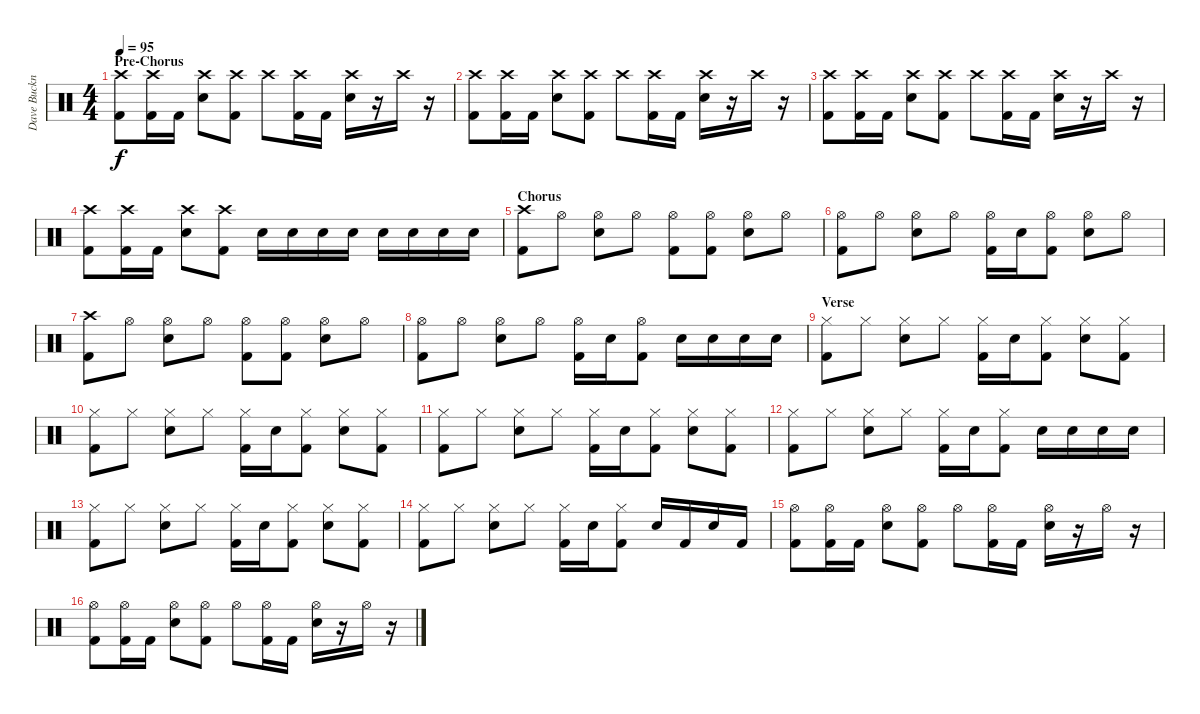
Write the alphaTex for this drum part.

\track ("Dave Buckner " "Dave Buckn") {instrument percussion}
\staff {score}
\articulation defaults
\ts (4 4)
\section ("" "Pre-Chorus")
\tempo 95
\clef neutral
\ks c
("Crash high (hit)" "Kick (hit) 2").8{dy f} ("Crash high (hit)" "Kick (hit) 2").16 "Kick (hit) 2".16 ("Crash high (hit)" "Snare (hit) 2").8 ("Crash high (hit)" "Kick (hit) 2").8 "Crash high (hit)".8 ("Crash high (hit)" "Kick (hit) 2").16 "Kick (hit) 2".16 ("Crash high (hit)" "Snare (hit) 2").16 r.16 "Crash high (hit)".16 r.16 |
("Crash high (hit)" "Kick (hit) 2").8 ("Crash high (hit)" "Kick (hit) 2").16 "Kick (hit) 2".16 ("Crash high (hit)" "Snare (hit) 2").8 ("Crash high (hit)" "Kick (hit) 2").8 "Crash high (hit)".8 ("Crash high (hit)" "Kick (hit) 2").16 "Kick (hit) 2".16 ("Crash high (hit)" "Snare (hit) 2").16 r.16 "Crash high (hit)".16 r.16 |
("Crash high (hit)" "Kick (hit) 2").8 ("Crash high (hit)" "Kick (hit) 2").16 "Kick (hit) 2".16 ("Crash high (hit)" "Snare (hit) 2").8 ("Crash high (hit)" "Kick (hit) 2").8 "Crash high (hit)".8 ("Crash high (hit)" "Kick (hit) 2").16 "Kick (hit) 2".16 ("Crash high (hit)" "Snare (hit) 2").16 r.16 "Crash high (hit)".16 r.16 |
("Crash high (hit)" "Kick (hit) 2").8 ("Crash high (hit)" "Kick (hit) 2").16 "Kick (hit) 2".16 ("Crash high (hit)" "Snare (hit) 2").8 ("Crash high (hit)" "Kick (hit) 2").8 "Snare (hit) 2".16 "Snare (hit) 2".16 "Snare (hit) 2".16 "Snare (hit) 2".16 "Snare (hit) 2".16 "Snare (hit) 2".16 "Snare (hit) 2".16 "Snare (hit) 2".16 |
\section ("" "Chorus")
("Crash high (hit)" "Kick (hit) 2").8 "Hi-Hat (open)".8 ("Hi-Hat (open)" "Snare (hit) 2").8 "Hi-Hat (open)".8 ("Hi-Hat (open)" "Kick (hit) 2").8 ("Hi-Hat (open)" "Kick (hit) 2").8 ("Hi-Hat (open)" "Snare (hit) 2").8 "Hi-Hat (open)".8 |
("Hi-Hat (open)" "Kick (hit) 2").8 "Hi-Hat (open)".8 ("Hi-Hat (open)" "Snare (hit) 2").8 "Hi-Hat (open)".8 ("Hi-Hat (open)" "Kick (hit) 2").16 "Snare (hit) 2".16 ("Hi-Hat (open)" "Kick (hit) 2").8 ("Hi-Hat (open)" "Snare (hit) 2").8 "Hi-Hat (open)".8 |
("Crash high (hit)" "Kick (hit) 2").8 "Hi-Hat (open)".8 ("Hi-Hat (open)" "Snare (hit) 2").8 "Hi-Hat (open)".8 ("Hi-Hat (open)" "Kick (hit) 2").8 ("Hi-Hat (open)" "Kick (hit) 2").8 ("Hi-Hat (open)" "Snare (hit) 2").8 "Hi-Hat (open)".8 |
("Hi-Hat (open)" "Kick (hit) 2").8 "Hi-Hat (open)".8 ("Hi-Hat (open)" "Snare (hit) 2").8 "Hi-Hat (open)".8 ("Hi-Hat (open)" "Kick (hit) 2").16 "Snare (hit) 2".16 ("Hi-Hat (open)" "Kick (hit) 2").8 "Snare (hit) 2".16 "Snare (hit) 2".16 "Snare (hit) 2".16 "Snare (hit) 2".16 |
\section ("" "Verse")
("Hi-Hat (closed)" "Kick (hit) 2").8 "Hi-Hat (closed)".8 ("Hi-Hat (closed)" "Snare (hit) 2").8 "Hi-Hat (closed)".8 ("Hi-Hat (closed)" "Kick (hit) 2").16 "Snare (hit) 2".16 ("Hi-Hat (closed)" "Kick (hit) 2").8 ("Hi-Hat (closed)" "Snare (hit) 2").8 ("Hi-Hat (closed)" "Kick (hit) 2").8 |
("Hi-Hat (closed)" "Kick (hit) 2").8 "Hi-Hat (closed)".8 ("Hi-Hat (closed)" "Snare (hit) 2").8 "Hi-Hat (closed)".8 ("Hi-Hat (closed)" "Kick (hit) 2").16 "Snare (hit) 2".16 ("Hi-Hat (closed)" "Kick (hit) 2").8 ("Hi-Hat (closed)" "Snare (hit) 2").8 ("Hi-Hat (closed)" "Kick (hit) 2").8 |
("Hi-Hat (closed)" "Kick (hit) 2").8 "Hi-Hat (closed)".8 ("Hi-Hat (closed)" "Snare (hit) 2").8 "Hi-Hat (closed)".8 ("Hi-Hat (closed)" "Kick (hit) 2").16 "Snare (hit) 2".16 ("Hi-Hat (closed)" "Kick (hit) 2").8 ("Hi-Hat (closed)" "Snare (hit) 2").8 ("Hi-Hat (closed)" "Kick (hit) 2").8 |
("Hi-Hat (closed)" "Kick (hit) 2").8 "Hi-Hat (closed)".8 ("Hi-Hat (closed)" "Snare (hit) 2").8 "Hi-Hat (closed)".8 ("Hi-Hat (closed)" "Kick (hit) 2").16 "Snare (hit) 2".16 ("Hi-Hat (closed)" "Kick (hit) 2").8 "Snare (hit) 2".16 "Snare (hit) 2".16 "Snare (hit) 2".16 "Snare (hit) 2".16 |
("Hi-Hat (closed)" "Kick (hit) 2").8 "Hi-Hat (closed)".8 ("Hi-Hat (closed)" "Snare (hit) 2").8 "Hi-Hat (closed)".8 ("Hi-Hat (closed)" "Kick (hit) 2").16 "Snare (hit) 2".16 ("Hi-Hat (closed)" "Kick (hit) 2").8 ("Hi-Hat (closed)" "Snare (hit) 2").8 ("Hi-Hat (closed)" "Kick (hit) 2").8 |
("Hi-Hat (closed)" "Kick (hit) 2").8 "Hi-Hat (closed)".8 ("Hi-Hat (closed)" "Snare (hit) 2").8 "Hi-Hat (closed)".8 ("Hi-Hat (closed)" "Kick (hit) 2").16 "Snare (hit) 2".16 ("Hi-Hat (closed)" "Kick (hit) 2").8 "Snare (hit) 2".16 "Kick (hit) 2".16 "Snare (hit) 2".16 "Kick (hit) 2".16 |
("Hi-Hat (open)" "Kick (hit) 2").8 ("Hi-Hat (open)" "Kick (hit) 2").16 "Kick (hit) 2".16 ("Hi-Hat (open)" "Snare (hit) 2").8 ("Hi-Hat (open)" "Kick (hit) 2").8 "Hi-Hat (open)".8 ("Hi-Hat (open)" "Kick (hit) 2").16 "Kick (hit) 2".16 ("Hi-Hat (open)" "Snare (hit) 2").16 r.16 "Hi-Hat (open)".16 r.16 |
("Hi-Hat (open)" "Kick (hit) 2").8 ("Hi-Hat (open)" "Kick (hit) 2").16 "Kick (hit) 2".16 ("Hi-Hat (open)" "Snare (hit) 2").8 ("Hi-Hat (open)" "Kick (hit) 2").8 "Hi-Hat (open)".8 ("Hi-Hat (open)" "Kick (hit) 2").16 "Kick (hit) 2".16 ("Hi-Hat (open)" "Snare (hit) 2").16 r.16 "Hi-Hat (open)".16 r.16
